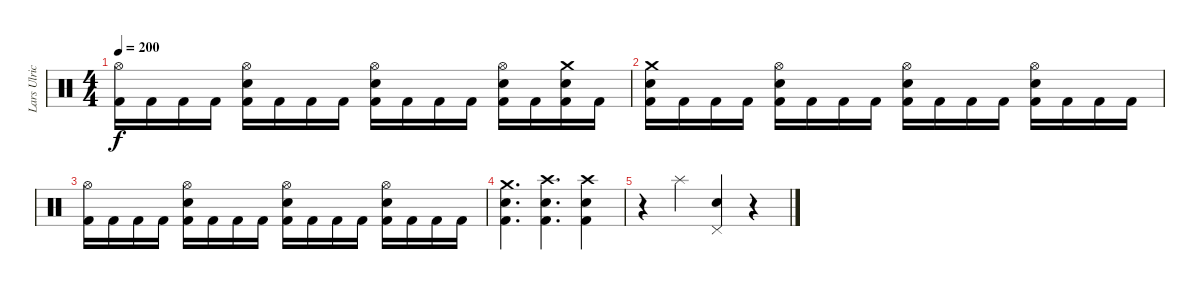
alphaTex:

\track ("Lars Ulrich" "Lars Ulric") {instrument percussion}
\staff {score}
\articulation defaults
\ts (4 4)
\tempo 200
\clef neutral
\ks c
("Hi-Hat (open)" "Kick (hit) 2").16{dy f} "Kick (hit) 2".16 "Kick (hit) 2".16 "Kick (hit) 2".16 ("Hi-Hat (open)" "Electric Snare (hit)" "Kick (hit) 2").16 "Kick (hit) 2".16 "Kick (hit) 2".16 "Kick (hit) 2".16 ("Hi-Hat (open)" "Electric Snare (hit)" "Kick (hit) 2").16 "Kick (hit) 2".16 "Kick (hit) 2".16 "Kick (hit) 2".16 ("Hi-Hat (open)" "Electric Snare (hit)" "Kick (hit) 2").16 "Kick (hit) 2".16 ("Crash medium (hit)" "Electric Snare (hit)" "Kick (hit) 2").16 "Kick (hit) 2".16 |
("Crash medium (hit)" "Electric Snare (hit)" "Kick (hit) 2").16 "Kick (hit) 2".16 "Kick (hit) 2".16 "Kick (hit) 2".16 ("Hi-Hat (open)" "Electric Snare (hit)" "Kick (hit) 2").16 "Kick (hit) 2".16 "Kick (hit) 2".16 "Kick (hit) 2".16 ("Hi-Hat (open)" "Electric Snare (hit)" "Kick (hit) 2").16 "Kick (hit) 2".16 "Kick (hit) 2".16 "Kick (hit) 2".16 ("Hi-Hat (open)" "Electric Snare (hit)" "Kick (hit) 2").16 "Kick (hit) 2".16 "Kick (hit) 2".16 "Kick (hit) 2".16 |
("Hi-Hat (open)" "Kick (hit) 2").16 "Kick (hit) 2".16 "Kick (hit) 2".16 "Kick (hit) 2".16 ("Hi-Hat (open)" "Electric Snare (hit)" "Kick (hit) 2").16 "Kick (hit) 2".16 "Kick (hit) 2".16 "Kick (hit) 2".16 ("Hi-Hat (open)" "Electric Snare (hit)" "Kick (hit) 2").16 "Kick (hit) 2".16 "Kick (hit) 2".16 "Kick (hit) 2".16 ("Hi-Hat (open)" "Electric Snare (hit)" "Kick (hit) 2").16 "Kick (hit) 2".16 "Kick (hit) 2".16 "Kick (hit) 2".16 |
("Crash medium (hit)" "Electric Snare (hit)" "Kick (hit) 2").4{d} ("Crash high (hit)" "Electric Snare (hit)" "Kick (hit) 2").4{d} ("Crash high (hit)" "Electric Snare (hit)" "Kick (hit) 2").4 |
r.4 "Splash (hit)".4 ("Pedal Hi-Hat (hit)" "Electric Snare (hit)").4 r.4
